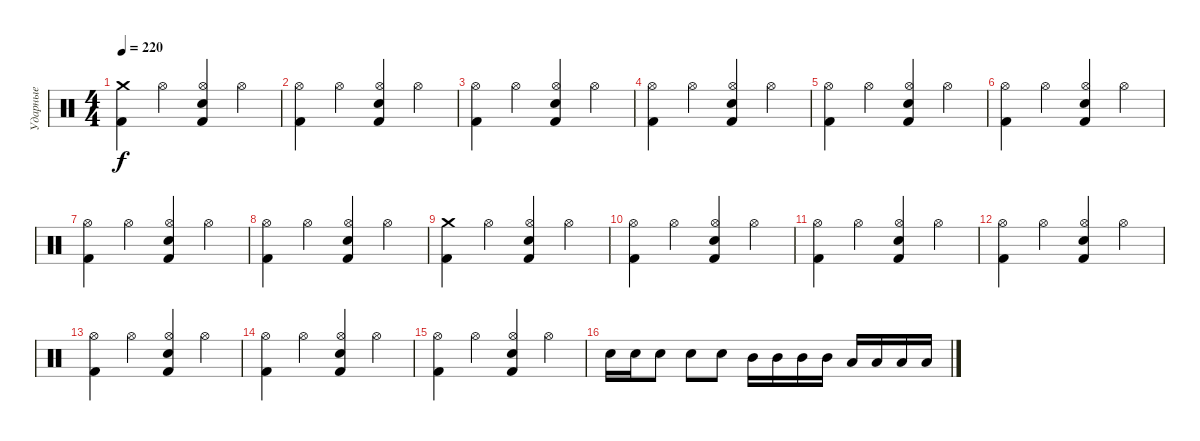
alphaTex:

\track ("Ударные" "Ударные") {instrument percussion}
\staff {score}
\articulation defaults
\ts (4 4)
\tempo 220
\clef neutral
\ks c
("Crash medium (hit)" "Kick (hit) 2").4{dy f} "Hi-Hat (open)".4 ("Hi-Hat (open)" "Electric Snare (hit)" "Kick (hit) 2").4 "Hi-Hat (open)".4 |
("Hi-Hat (open)" "Kick (hit) 2").4 "Hi-Hat (open)".4 ("Hi-Hat (open)" "Electric Snare (hit)" "Kick (hit) 2").4 "Hi-Hat (open)".4 |
("Hi-Hat (open)" "Kick (hit) 2").4 "Hi-Hat (open)".4 ("Hi-Hat (open)" "Electric Snare (hit)" "Kick (hit) 2").4 "Hi-Hat (open)".4 |
("Hi-Hat (open)" "Kick (hit) 2").4 "Hi-Hat (open)".4 ("Hi-Hat (open)" "Electric Snare (hit)" "Kick (hit) 2").4 "Hi-Hat (open)".4 |
("Hi-Hat (open)" "Kick (hit) 2").4 "Hi-Hat (open)".4 ("Hi-Hat (open)" "Electric Snare (hit)" "Kick (hit) 2").4 "Hi-Hat (open)".4 |
("Hi-Hat (open)" "Kick (hit) 2").4 "Hi-Hat (open)".4 ("Hi-Hat (open)" "Electric Snare (hit)" "Kick (hit) 2").4 "Hi-Hat (open)".4 |
("Hi-Hat (open)" "Kick (hit) 2").4 "Hi-Hat (open)".4 ("Hi-Hat (open)" "Electric Snare (hit)" "Kick (hit) 2").4 "Hi-Hat (open)".4 |
("Hi-Hat (open)" "Kick (hit) 2").4 "Hi-Hat (open)".4 ("Hi-Hat (open)" "Electric Snare (hit)" "Kick (hit) 2").4 "Hi-Hat (open)".4 |
("Crash medium (hit)" "Kick (hit) 2").4 "Hi-Hat (open)".4 ("Hi-Hat (open)" "Electric Snare (hit)" "Kick (hit) 2").4 "Hi-Hat (open)".4 |
("Hi-Hat (open)" "Kick (hit) 2").4 "Hi-Hat (open)".4 ("Hi-Hat (open)" "Electric Snare (hit)" "Kick (hit) 2").4 "Hi-Hat (open)".4 |
("Hi-Hat (open)" "Kick (hit) 2").4 "Hi-Hat (open)".4 ("Hi-Hat (open)" "Electric Snare (hit)" "Kick (hit) 2").4 "Hi-Hat (open)".4 |
("Hi-Hat (open)" "Kick (hit) 2").4 "Hi-Hat (open)".4 ("Hi-Hat (open)" "Electric Snare (hit)" "Kick (hit) 2").4 "Hi-Hat (open)".4 |
("Hi-Hat (open)" "Kick (hit) 2").4 "Hi-Hat (open)".4 ("Hi-Hat (open)" "Electric Snare (hit)" "Kick (hit) 2").4 "Hi-Hat (open)".4 |
("Hi-Hat (open)" "Kick (hit) 2").4 "Hi-Hat (open)".4 ("Hi-Hat (open)" "Electric Snare (hit)" "Kick (hit) 2").4 "Hi-Hat (open)".4 |
("Hi-Hat (open)" "Kick (hit) 2").4 "Hi-Hat (open)".4 ("Hi-Hat (open)" "Electric Snare (hit)" "Kick (hit) 2").4 "Hi-Hat (open)".4 |
"Electric Snare (hit)".16 "Electric Snare (hit)".16 "Electric Snare (hit)".8 "Electric Snare (hit)".8 "Electric Snare (hit)".8 "Mid Tom (hit)".16 "Mid Tom (hit)".16 "Mid Tom (hit)".16 "Mid Tom (hit)".16 "Low Tom (hit)".16 "Low Tom (hit)".16 "Low Tom (hit)".16 "Low Tom (hit)".16
